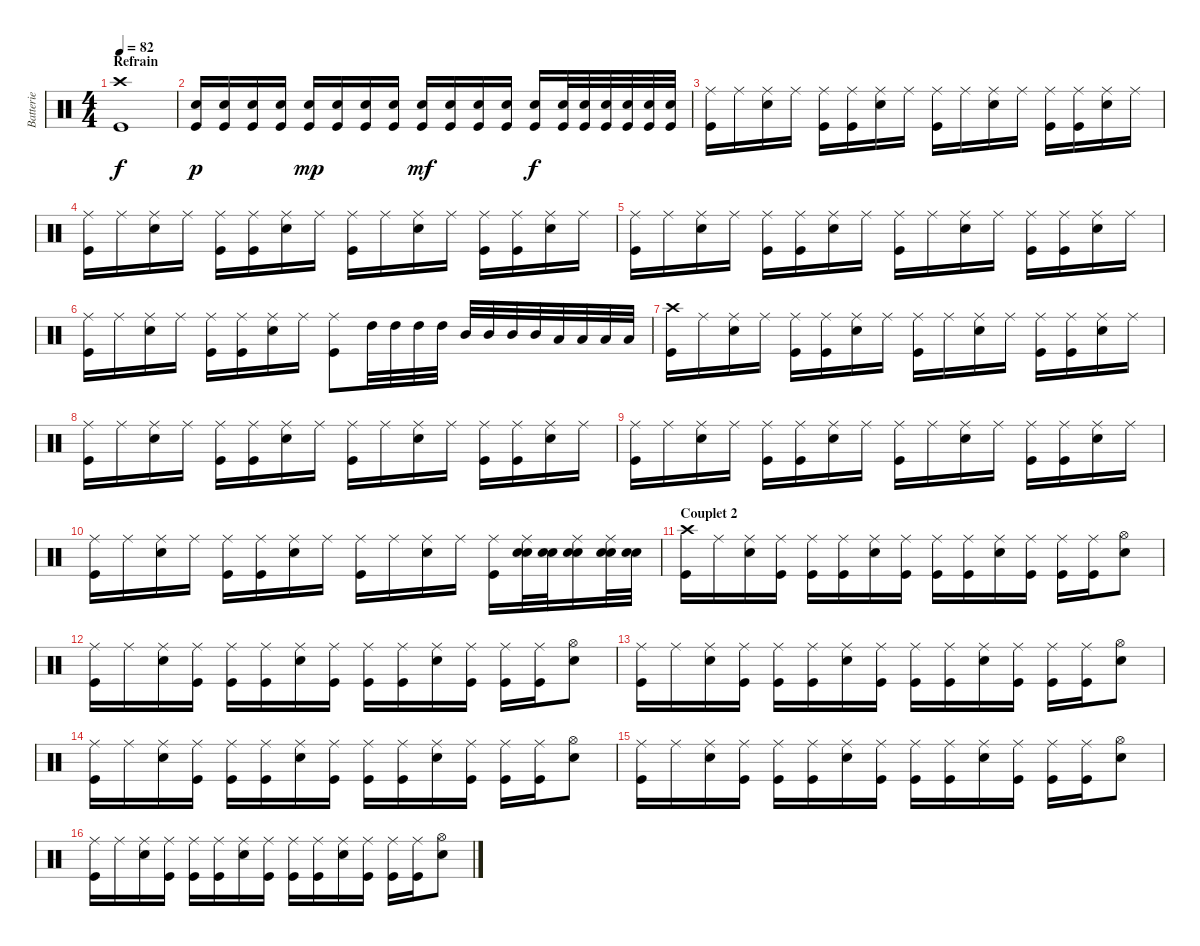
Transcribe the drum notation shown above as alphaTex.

\track ("Batterie" "Batterie") {instrument percussion}
\staff {score}
\articulation defaults
\ts (4 4)
\section ("" "Refrain")
\tempo 82
\clef neutral
\ks c
("Crash high (hit)" "Kick (hit)").1{dy f} |
("Snare (hit) 2" "Kick (hit)").16{dy p} ("Snare (hit) 2" "Kick (hit)").16 ("Snare (hit) 2" "Kick (hit)").16 ("Snare (hit) 2" "Kick (hit)").16 ("Snare (hit) 2" "Kick (hit)").16{dy mp} ("Snare (hit) 2" "Kick (hit)").16 ("Snare (hit) 2" "Kick (hit)").16 ("Snare (hit) 2" "Kick (hit)").16 ("Snare (hit) 2" "Kick (hit)").16{dy mf} ("Snare (hit) 2" "Kick (hit)").16 ("Snare (hit) 2" "Kick (hit)").16 ("Snare (hit) 2" "Kick (hit)").16 ("Snare (hit) 2" "Kick (hit)").16{dy f} ("Snare (hit) 2" "Kick (hit)").32 ("Snare (hit) 2" "Kick (hit)").32 ("Snare (hit) 2" "Kick (hit)").32 ("Snare (hit) 2" "Kick (hit)").32 ("Snare (hit) 2" "Kick (hit)").32 ("Snare (hit) 2" "Kick (hit)").32 |
("Ride (middle)" "Kick (hit)").16 "Ride (middle)".16 ("Ride (middle)" "Snare (hit) 2").16 "Ride (middle)".16 ("Ride (middle)" "Kick (hit)").16 ("Ride (middle)" "Kick (hit)").16 ("Ride (middle)" "Snare (hit) 2").16 "Ride (middle)".16 ("Ride (middle)" "Kick (hit)").16 "Ride (middle)".16 ("Ride (middle)" "Snare (hit) 2").16 "Ride (middle)".16 ("Ride (middle)" "Kick (hit)").16 ("Ride (middle)" "Kick (hit)").16 ("Ride (middle)" "Snare (hit) 2").16 "Ride (middle)".16 |
("Ride (middle)" "Kick (hit)").16 "Ride (middle)".16 ("Ride (middle)" "Snare (hit) 2").16 "Ride (middle)".16 ("Ride (middle)" "Kick (hit)").16 ("Ride (middle)" "Kick (hit)").16 ("Ride (middle)" "Snare (hit) 2").16 "Ride (middle)".16 ("Ride (middle)" "Kick (hit)").16 "Ride (middle)".16 ("Ride (middle)" "Snare (hit) 2").16 "Ride (middle)".16 ("Ride (middle)" "Kick (hit)").16 ("Ride (middle)" "Kick (hit)").16 ("Ride (middle)" "Snare (hit) 2").16 "Ride (middle)".16 |
("Ride (middle)" "Kick (hit)").16 "Ride (middle)".16 ("Ride (middle)" "Snare (hit) 2").16 "Ride (middle)".16 ("Ride (middle)" "Kick (hit)").16 ("Ride (middle)" "Kick (hit)").16 ("Ride (middle)" "Snare (hit) 2").16 "Ride (middle)".16 ("Ride (middle)" "Kick (hit)").16 "Ride (middle)".16 ("Ride (middle)" "Snare (hit) 2").16 "Ride (middle)".16 ("Ride (middle)" "Kick (hit)").16 ("Ride (middle)" "Kick (hit)").16 ("Ride (middle)" "Snare (hit) 2").16 "Ride (middle)".16 |
("Ride (middle)" "Kick (hit)").16 "Ride (middle)".16 ("Ride (middle)" "Snare (hit) 2").16 "Ride (middle)".16 ("Ride (middle)" "Kick (hit)").16 ("Ride (middle)" "Kick (hit)").16 ("Ride (middle)" "Snare (hit) 2").16 "Ride (middle)".16 ("Ride (middle)" "Kick (hit)").8 "High Tom (hit)".32 "High Tom (hit)".32 "High Tom (hit)".32 "High Tom (hit)".32 "Mid Tom (hit)".32 "Mid Tom (hit)".32 "Mid Tom (hit)".32 "Mid Tom (hit)".32 "Low Tom (hit)".32 "Low Tom (hit)".32 "Low Tom (hit)".32 "Low Tom (hit)".32 |
("Crash high (hit)" "Kick (hit)").16 "Ride (middle)".16 ("Ride (middle)" "Snare (hit) 2").16 "Ride (middle)".16 ("Ride (middle)" "Kick (hit)").16 ("Ride (middle)" "Kick (hit)").16 ("Ride (middle)" "Snare (hit) 2").16 "Ride (middle)".16 ("Ride (middle)" "Kick (hit)").16 "Ride (middle)".16 ("Ride (middle)" "Snare (hit) 2").16 "Ride (middle)".16 ("Ride (middle)" "Kick (hit)").16 ("Ride (middle)" "Kick (hit)").16 ("Ride (middle)" "Snare (hit) 2").16 "Ride (middle)".16 |
("Ride (middle)" "Kick (hit)").16 "Ride (middle)".16 ("Ride (middle)" "Snare (hit) 2").16 "Ride (middle)".16 ("Ride (middle)" "Kick (hit)").16 ("Ride (middle)" "Kick (hit)").16 ("Ride (middle)" "Snare (hit) 2").16 "Ride (middle)".16 ("Ride (middle)" "Kick (hit)").16 "Ride (middle)".16 ("Ride (middle)" "Snare (hit) 2").16 "Ride (middle)".16 ("Ride (middle)" "Kick (hit)").16 ("Ride (middle)" "Kick (hit)").16 ("Ride (middle)" "Snare (hit) 2").16 "Ride (middle)".16 |
("Ride (middle)" "Kick (hit)").16 "Ride (middle)".16 ("Ride (middle)" "Snare (hit) 2").16 "Ride (middle)".16 ("Ride (middle)" "Kick (hit)").16 ("Ride (middle)" "Kick (hit)").16 ("Ride (middle)" "Snare (hit) 2").16 "Ride (middle)".16 ("Ride (middle)" "Kick (hit)").16 "Ride (middle)".16 ("Ride (middle)" "Snare (hit) 2").16 "Ride (middle)".16 ("Ride (middle)" "Kick (hit)").16 ("Ride (middle)" "Kick (hit)").16 ("Ride (middle)" "Snare (hit) 2").16 "Ride (middle)".16 |
("Ride (middle)" "Kick (hit)").16 "Ride (middle)".16 ("Ride (middle)" "Snare (hit) 2").16 "Ride (middle)".16 ("Ride (middle)" "Kick (hit)").16 ("Ride (middle)" "Kick (hit)").16 ("Ride (middle)" "Snare (hit) 2").16 "Ride (middle)".16 ("Ride (middle)" "Kick (hit)").16 "Ride (middle)".16 ("Ride (middle)" "Snare (hit) 2").16 "Ride (middle)".16 ("Ride (middle)" "Kick (hit)").16 ("Ride (middle)" "Electric Snare (hit)" "Snare (hit) 2").32 ("Electric Snare (hit)" "Snare (hit) 2").32 ("Ride (middle)" "Electric Snare (hit)" "Snare (hit) 2").16 ("Ride (middle)" "Electric Snare (hit)" "Snare (hit) 2").32 ("Electric Snare (hit)" "Snare (hit) 2").32 |
\section ("" "Couplet 2")
("Crash high (hit)" "Kick (hit)").16 "Ride (middle)".16 ("Ride (middle)" "Snare (hit) 2").16 ("Ride (middle)" "Kick (hit)").16 ("Ride (middle)" "Kick (hit)").16 ("Ride (middle)" "Kick (hit)").16 ("Ride (middle)" "Snare (hit) 2").16 ("Ride (middle)" "Kick (hit)").16 ("Ride (middle)" "Kick (hit)").16 ("Ride (middle)" "Kick (hit)").16 ("Ride (middle)" "Snare (hit) 2").16 ("Ride (middle)" "Kick (hit)").16 ("Ride (middle)" "Kick (hit)").16 ("Ride (middle)" "Kick (hit)").16 ("Hi-Hat (open)" "Snare (hit) 2").8 |
("Ride (middle)" "Kick (hit)").16 "Ride (middle)".16 ("Ride (middle)" "Snare (hit) 2").16 ("Ride (middle)" "Kick (hit)").16 ("Ride (middle)" "Kick (hit)").16 ("Ride (middle)" "Kick (hit)").16 ("Ride (middle)" "Snare (hit) 2").16 ("Ride (middle)" "Kick (hit)").16 ("Ride (middle)" "Kick (hit)").16 ("Ride (middle)" "Kick (hit)").16 ("Ride (middle)" "Snare (hit) 2").16 ("Ride (middle)" "Kick (hit)").16 ("Ride (middle)" "Kick (hit)").16 ("Ride (middle)" "Kick (hit)").16 ("Hi-Hat (open)" "Snare (hit) 2").8 |
("Ride (middle)" "Kick (hit)").16 "Ride (middle)".16 ("Ride (middle)" "Snare (hit) 2").16 ("Ride (middle)" "Kick (hit)").16 ("Ride (middle)" "Kick (hit)").16 ("Ride (middle)" "Kick (hit)").16 ("Ride (middle)" "Snare (hit) 2").16 ("Ride (middle)" "Kick (hit)").16 ("Ride (middle)" "Kick (hit)").16 ("Ride (middle)" "Kick (hit)").16 ("Ride (middle)" "Snare (hit) 2").16 ("Ride (middle)" "Kick (hit)").16 ("Ride (middle)" "Kick (hit)").16 ("Ride (middle)" "Kick (hit)").16 ("Hi-Hat (open)" "Snare (hit) 2").8 |
("Ride (middle)" "Kick (hit)").16 "Ride (middle)".16 ("Ride (middle)" "Snare (hit) 2").16 ("Ride (middle)" "Kick (hit)").16 ("Ride (middle)" "Kick (hit)").16 ("Ride (middle)" "Kick (hit)").16 ("Ride (middle)" "Snare (hit) 2").16 ("Ride (middle)" "Kick (hit)").16 ("Ride (middle)" "Kick (hit)").16 ("Ride (middle)" "Kick (hit)").16 ("Ride (middle)" "Snare (hit) 2").16 ("Ride (middle)" "Kick (hit)").16 ("Ride (middle)" "Kick (hit)").16 ("Ride (middle)" "Kick (hit)").16 ("Hi-Hat (open)" "Snare (hit) 2").8 |
("Ride (middle)" "Kick (hit)").16 "Ride (middle)".16 ("Ride (middle)" "Snare (hit) 2").16 ("Ride (middle)" "Kick (hit)").16 ("Ride (middle)" "Kick (hit)").16 ("Ride (middle)" "Kick (hit)").16 ("Ride (middle)" "Snare (hit) 2").16 ("Ride (middle)" "Kick (hit)").16 ("Ride (middle)" "Kick (hit)").16 ("Ride (middle)" "Kick (hit)").16 ("Ride (middle)" "Snare (hit) 2").16 ("Ride (middle)" "Kick (hit)").16 ("Ride (middle)" "Kick (hit)").16 ("Ride (middle)" "Kick (hit)").16 ("Hi-Hat (open)" "Snare (hit) 2").8 |
("Ride (middle)" "Kick (hit)").16 "Ride (middle)".16 ("Ride (middle)" "Snare (hit) 2").16 ("Ride (middle)" "Kick (hit)").16 ("Ride (middle)" "Kick (hit)").16 ("Ride (middle)" "Kick (hit)").16 ("Ride (middle)" "Snare (hit) 2").16 ("Ride (middle)" "Kick (hit)").16 ("Ride (middle)" "Kick (hit)").16 ("Ride (middle)" "Kick (hit)").16 ("Ride (middle)" "Snare (hit) 2").16 ("Ride (middle)" "Kick (hit)").16 ("Ride (middle)" "Kick (hit)").16 ("Ride (middle)" "Kick (hit)").16 ("Hi-Hat (open)" "Snare (hit) 2").8
